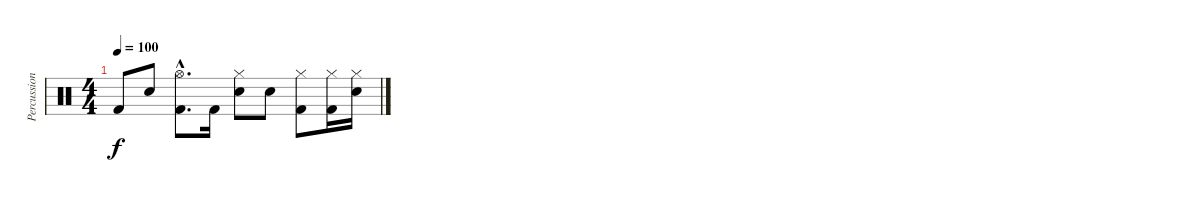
\track ("Percussion" "Percussion") {instrument percussion}
\staff {score}
\articulation defaults
\ts (4 4)
\tempo 100
\clef neutral
\ks c "Kick (hit) 2".8{dy f} "Snare (hit) 2".8
("Hi-Hat (open)"{hac} "Kick (hit) 2"{hac}).8{d} "Kick (hit) 2".16 ("Hi-Hat (closed)" "Snare (hit) 2").8 "Snare (hit) 2".8 ("Hi-Hat (closed)" "Kick (hit) 2").8 ("Hi-Hat (closed)" "Kick (hit) 2").16 ("Hi-Hat (closed)" "Snare (hit) 2").16
